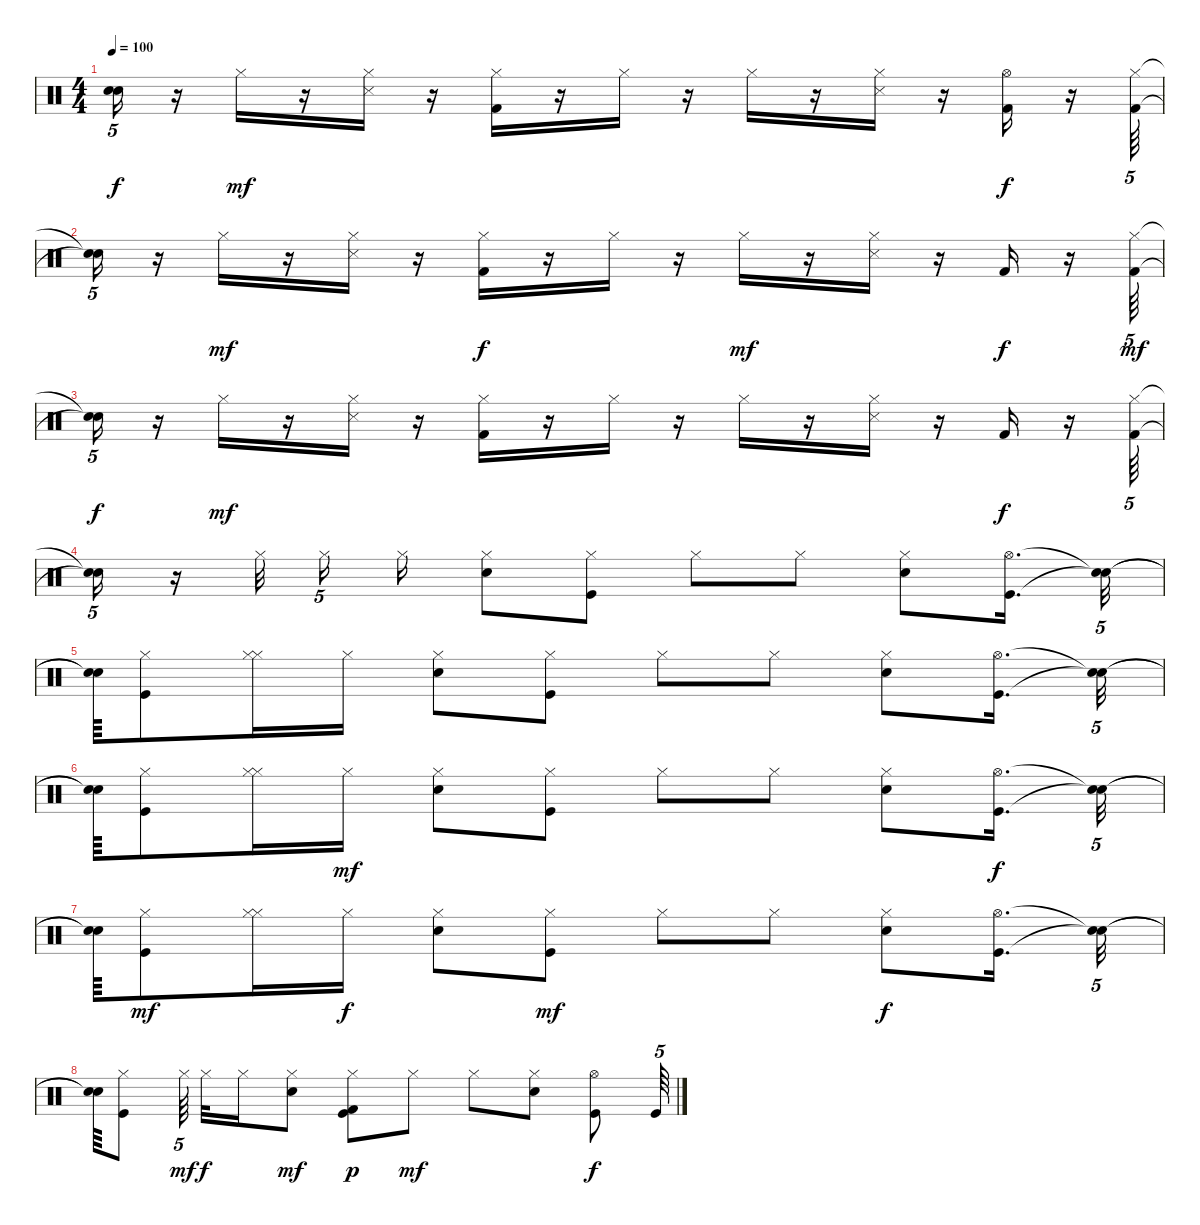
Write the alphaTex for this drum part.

\track "" {instrument percussion}
\staff {score}
\articulation defaults
\ts (4 4)
\tempo 100
\clef neutral
\ks c
("Snare (hit)"{t} "Snare (hit)"{t}).16{tu (5 4) dy f} r.16 "Hi-Hat (closed)".16{dy mf} r.16 ("Hi-Hat (closed)" "Snare (side stick) 3").16 r.16 ("Kick (hit) 2" "Hi-Hat (closed)").16 r.16 "Hi-Hat (closed)".16 r.16 "Hi-Hat (closed)".16 r.16 ("Hi-Hat (closed)" "Snare (side stick) 3").16 r.16 ("Hi-Hat (open)" "Kick (hit) 2").16{dy f} r.16 ("Hi-Hat (closed)" "Kick (hit) 2").64{tu (5 4)} |
("Snare (hit)"{t} "Snare (hit)"{t}).16{tu (5 4)} r.16 "Hi-Hat (closed)".16{dy mf} r.16 ("Hi-Hat (closed)" "Snare (side stick) 3").16 r.16 ("Kick (hit) 2" "Hi-Hat (closed)").16{dy f} r.16 "Hi-Hat (closed)".16 r.16 "Hi-Hat (closed)".16{dy mf} r.16 ("Hi-Hat (closed)" "Snare (side stick) 3").16 r.16 "Kick (hit) 2".16{dy f} r.16 ("Kick (hit) 2" "Hi-Hat (closed)").64{tu (5 4) dy mf} |
("Snare (hit)"{t} "Snare (hit)"{t}).16{tu (5 4) dy f} r.16 "Hi-Hat (closed)".16{dy mf} r.16 ("Hi-Hat (closed)" "Snare (side stick) 3").16 r.16 ("Kick (hit) 2" "Hi-Hat (closed)").16 r.16 "Hi-Hat (closed)".16 r.16 "Hi-Hat (closed)".16 r.16 ("Hi-Hat (closed)" "Snare (side stick) 3").16 r.16 "Kick (hit) 2".16{dy f} r.16 ("Hi-Hat (closed)" "Kick (hit) 2").64{tu (5 4)} |
("Snare (hit)"{t} "Snare (hit)"{t}).16{tu (5 4)} r.16 "Hi-Hat (closed)".32{beam splitsecondary} "Hi-Hat (closed)".16{tu (5 4)} "Hi-Hat (closed)".16 ("Snare (hit) 2" "Hi-Hat (closed)").8 ("Kick (hit)" "Hi-Hat (closed)").8 "Hi-Hat (closed)".8 "Hi-Hat (closed)".8 ("Snare (hit) 2" "Hi-Hat (closed)").8 ("Hi-Hat (open)" "Kick (hit)").16{d} ("Snare (hit)"{t} "Snare (hit)"{t}).32{tu (5 4)} |
("Snare (hit)"{t} "Snare (hit)"{t}).64 ("Hi-Hat (closed)" "Kick (hit)").8 ("Hi-Hat (closed)" "Hi-Hat (closed)").16 "Hi-Hat (closed)".16 ("Hi-Hat (closed)" "Snare (hit) 2").8 ("Kick (hit)" "Hi-Hat (closed)").8 "Hi-Hat (closed)".8 "Hi-Hat (closed)".8 ("Hi-Hat (closed)" "Snare (hit) 2").8 ("Hi-Hat (open)" "Kick (hit)").16{d} ("Snare (hit)"{t} "Snare (hit)"{t}).32{tu (5 4)} |
("Snare (hit)"{t} "Snare (hit)"{t}).64 ("Hi-Hat (closed)" "Kick (hit)").8 ("Hi-Hat (closed)" "Hi-Hat (closed)").16 "Hi-Hat (closed)".16{dy mf} ("Hi-Hat (closed)" "Snare (hit) 2").8 ("Kick (hit)" "Hi-Hat (closed)").8 "Hi-Hat (closed)".8 "Hi-Hat (closed)".8 ("Hi-Hat (closed)" "Snare (hit) 2").8 ("Hi-Hat (open)" "Kick (hit)").16{d dy f} ("Snare (hit)"{t} "Snare (hit)"{t}).32{tu (5 4)} |
("Snare (hit)"{t} "Snare (hit)"{t}).64 ("Hi-Hat (closed)" "Kick (hit)").8{dy mf} ("Hi-Hat (closed)" "Hi-Hat (closed)").16 "Hi-Hat (closed)".16{dy f} ("Snare (hit) 2" "Hi-Hat (closed)").8 ("Kick (hit)" "Hi-Hat (closed)").8{dy mf} "Hi-Hat (closed)".8 "Hi-Hat (closed)".8 ("Snare (hit) 2" "Hi-Hat (closed)").8{dy f} ("Kick (hit)" "Hi-Hat (open)").16{d} ("Snare (hit)"{t} "Snare (hit)"{t}).32{tu (5 4)} |
("Snare (hit)"{t} "Snare (hit)"{t}).64 ("Kick (hit)" "Hi-Hat (closed)").8 "Hi-Hat (closed)".64{tu (5 4) dy mf beam splitsecondary} "Hi-Hat (closed)".32{dy f} "Hi-Hat (closed)".16 ("Snare (hit) 2" "Hi-Hat (closed)").8{dy mf} ("Kick (hit)" "Hi-Hat (closed)" "Kick (hit) 2").8{dy p} "Hi-Hat (closed)".8{dy mf} "Hi-Hat (closed)".8 ("Snare (hit) 2" "Hi-Hat (closed)").8 ("Hi-Hat (open)" "Kick (hit)").8{dy f} "Kick (hit)".64{tu (5 4)}
